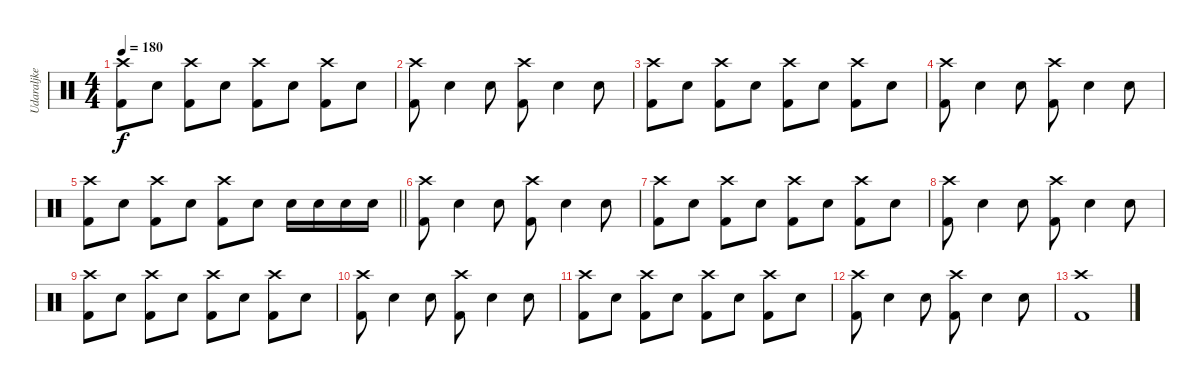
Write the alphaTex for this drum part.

\track ("Udaraljke" "Udaraljke") {instrument percussion}
\staff {score}
\articulation defaults
\ts (4 4)
\tempo 180
\clef neutral
\ks c
("Crash high (hit)" "Kick (hit) 2").8{dy f} "Electric Snare (hit)".8 ("Crash high (hit)" "Kick (hit) 2").8 "Electric Snare (hit)".8 ("Crash high (hit)" "Kick (hit) 2").8 "Electric Snare (hit)".8 ("Crash high (hit)" "Kick (hit) 2").8 "Electric Snare (hit)".8 |
("Crash high (hit)" "Kick (hit) 2").8 "Electric Snare (hit)".4 "Electric Snare (hit)".8 ("Crash high (hit)" "Kick (hit) 2").8 "Electric Snare (hit)".4 "Electric Snare (hit)".8 |
("Crash high (hit)" "Kick (hit) 2").8 "Electric Snare (hit)".8 ("Crash high (hit)" "Kick (hit) 2").8 "Electric Snare (hit)".8 ("Crash high (hit)" "Kick (hit) 2").8 "Electric Snare (hit)".8 ("Crash high (hit)" "Kick (hit) 2").8 "Electric Snare (hit)".8 |
("Crash high (hit)" "Kick (hit) 2").8 "Electric Snare (hit)".4 "Electric Snare (hit)".8 ("Crash high (hit)" "Kick (hit) 2").8 "Electric Snare (hit)".4 "Electric Snare (hit)".8 |
\barLineRight lightlight
("Crash high (hit)" "Kick (hit) 2").8 "Electric Snare (hit)".8 ("Crash high (hit)" "Kick (hit) 2").8 "Electric Snare (hit)".8 ("Crash high (hit)" "Kick (hit) 2").8 "Electric Snare (hit)".8 "Electric Snare (hit)".16 "Electric Snare (hit)".16 "Electric Snare (hit)".16 "Electric Snare (hit)".16 |
("Crash high (hit)" "Kick (hit) 2").8 "Electric Snare (hit)".4 "Electric Snare (hit)".8 ("Crash high (hit)" "Kick (hit) 2").8 "Electric Snare (hit)".4 "Electric Snare (hit)".8 |
("Crash high (hit)" "Kick (hit) 2").8 "Electric Snare (hit)".8 ("Crash high (hit)" "Kick (hit) 2").8 "Electric Snare (hit)".8 ("Crash high (hit)" "Kick (hit) 2").8 "Electric Snare (hit)".8 ("Crash high (hit)" "Kick (hit) 2").8 "Electric Snare (hit)".8 |
("Crash high (hit)" "Kick (hit) 2").8 "Electric Snare (hit)".4 "Electric Snare (hit)".8 ("Crash high (hit)" "Kick (hit) 2").8 "Electric Snare (hit)".4 "Electric Snare (hit)".8 |
("Crash high (hit)" "Kick (hit) 2").8 "Electric Snare (hit)".8 ("Crash high (hit)" "Kick (hit) 2").8 "Electric Snare (hit)".8 ("Crash high (hit)" "Kick (hit) 2").8 "Electric Snare (hit)".8 ("Crash high (hit)" "Kick (hit) 2").8 "Electric Snare (hit)".8 |
("Crash high (hit)" "Kick (hit) 2").8 "Electric Snare (hit)".4 "Electric Snare (hit)".8 ("Crash high (hit)" "Kick (hit) 2").8 "Electric Snare (hit)".4 "Electric Snare (hit)".8 |
("Crash high (hit)" "Kick (hit) 2").8 "Electric Snare (hit)".8 ("Crash high (hit)" "Kick (hit) 2").8 "Electric Snare (hit)".8 ("Crash high (hit)" "Kick (hit) 2").8 "Electric Snare (hit)".8 ("Crash high (hit)" "Kick (hit) 2").8 "Electric Snare (hit)".8 |
("Crash high (hit)" "Kick (hit) 2").8 "Electric Snare (hit)".4 "Electric Snare (hit)".8 ("Crash high (hit)" "Kick (hit) 2").8 "Electric Snare (hit)".4 "Electric Snare (hit)".8 |
("Crash high (hit)" "Kick (hit) 2").1
